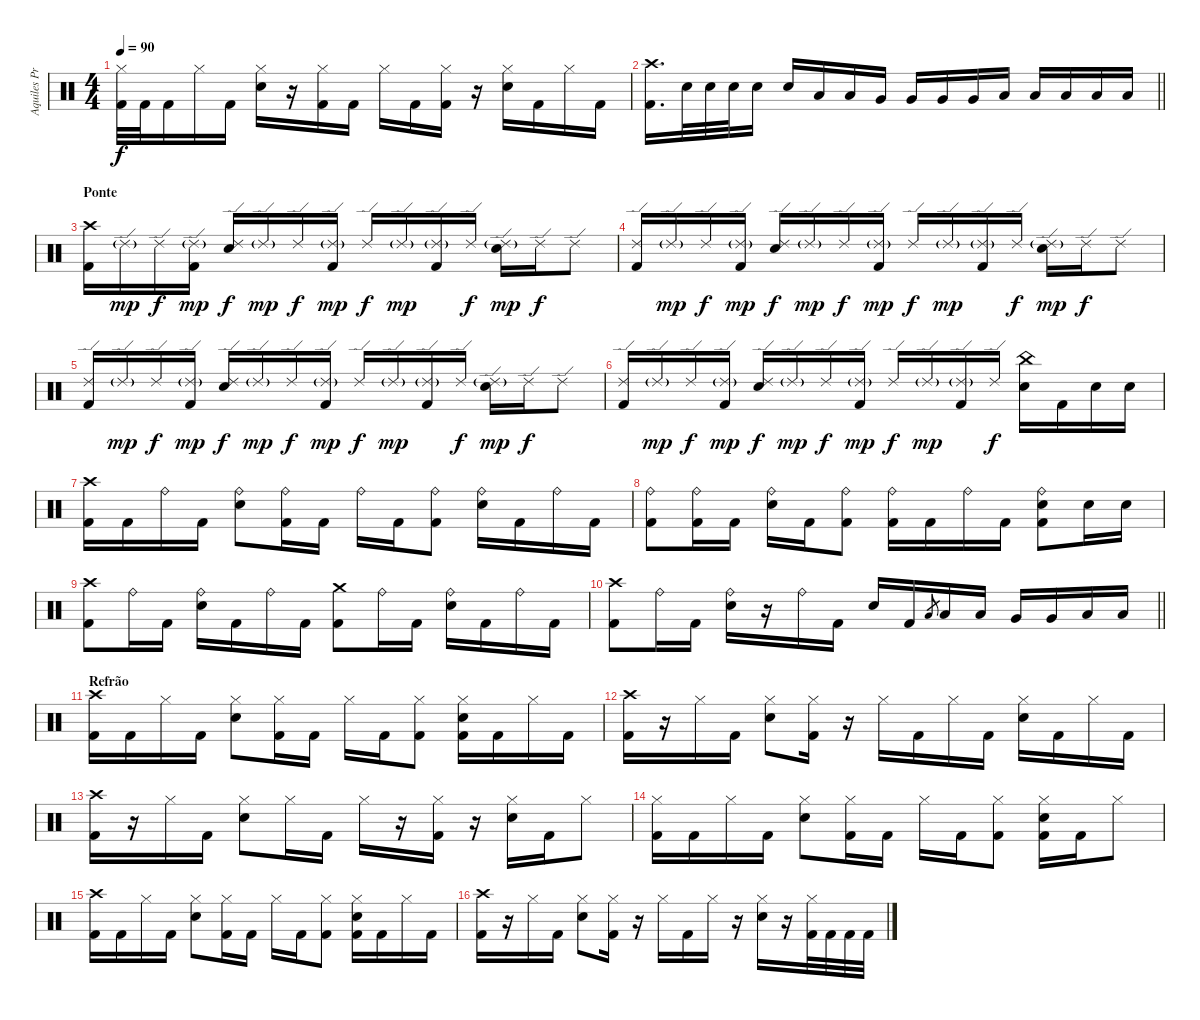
\track ("Aquiles Priester" "Aquiles Pr") {instrument percussion}
\staff {score}
\articulation defaults
\ts (4 4)
\tempo 90
\clef neutral
\ks c
("Hi-Hat (closed)" "Kick (hit) 2").32{dy f} "Kick (hit) 2".32 "Kick (hit) 2".16 "Hi-Hat (closed)".16 "Kick (hit) 2".16 ("Hi-Hat (closed)" "Electric Snare (hit)").16 r.16 ("Hi-Hat (closed)" "Kick (hit) 2").16 "Kick (hit) 2".16 "Hi-Hat (closed)".16 "Kick (hit) 2".16 ("Hi-Hat (closed)" "Kick (hit) 2").16 r.16 ("Hi-Hat (closed)" "Electric Snare (hit)").16 "Kick (hit) 2".16 "Hi-Hat (closed)".16 "Kick (hit) 2".16 |
\barLineRight lightlight
("Crash high (hit)" "Kick (hit) 2").16{d} "Electric Snare (hit)".32 "Electric Snare (hit)".32 "Electric Snare (hit)".32 "Electric Snare (hit)".16 "Electric Snare (hit)".16 "Low Tom (hit)".16 "Low Tom (hit)".16 "Very Low Tom (hit)".16 "Very Low Tom (hit)".16 "Very Low Tom (hit)".16 "Very Low Tom (hit)".16 "Low Floor Tom (hit)".16 "Low Floor Tom (hit)".16 "Low Floor Tom (hit)".16 "Low Floor Tom (hit)".16 "Low Floor Tom (hit)".16 |
\section ("" "Ponte")
("Crash high (hit)" "Kick (hit) 2").16 "Ride (edge) 2"{g}.16{dy mp} "Ride (edge) 2".16{dy f} ("Ride (edge) 2"{g} "Kick (hit) 2").16{dy mp} ("Ride (edge) 2" "Electric Snare (hit)").16{dy f} "Ride (edge) 2"{g}.16{dy mp} "Ride (edge) 2".16{dy f} ("Ride (edge) 2"{g} "Kick (hit) 2").16{dy mp} "Ride (edge) 2".16{dy f} "Ride (edge) 2"{g}.16{dy mp} ("Ride (edge) 2"{g} "Kick (hit) 2").16 "Ride (edge) 2".16{dy f} ("Ride (edge) 2"{g} "Electric Snare (hit)").16{dy mp} "Ride (edge) 2".16{dy f} "Ride (edge) 2".8 |
("Ride (edge) 2" "Kick (hit) 2").16 "Ride (edge) 2"{g}.16{dy mp} "Ride (edge) 2".16{dy f} ("Ride (edge) 2"{g} "Kick (hit) 2").16{dy mp} ("Ride (edge) 2" "Electric Snare (hit)").16{dy f} "Ride (edge) 2"{g}.16{dy mp} "Ride (edge) 2".16{dy f} ("Ride (edge) 2"{g} "Kick (hit) 2").16{dy mp} "Ride (edge) 2".16{dy f} "Ride (edge) 2"{g}.16{dy mp} ("Ride (edge) 2"{g} "Kick (hit) 2").16 "Ride (edge) 2".16{dy f} ("Ride (edge) 2"{g} "Electric Snare (hit)").16{dy mp} "Ride (edge) 2".16{dy f} "Ride (edge) 2".8 |
("Ride (edge) 2" "Kick (hit) 2").16 "Ride (edge) 2"{g}.16{dy mp} "Ride (edge) 2".16{dy f} ("Ride (edge) 2"{g} "Kick (hit) 2").16{dy mp} ("Ride (edge) 2" "Electric Snare (hit)").16{dy f} "Ride (edge) 2"{g}.16{dy mp} "Ride (edge) 2".16{dy f} ("Ride (edge) 2"{g} "Kick (hit) 2").16{dy mp} "Ride (edge) 2".16{dy f} "Ride (edge) 2"{g}.16{dy mp} ("Ride (edge) 2"{g} "Kick (hit) 2").16 "Ride (edge) 2".16{dy f} ("Ride (edge) 2"{g} "Electric Snare (hit)").16{dy mp} "Ride (edge) 2".16{dy f} "Ride (edge) 2".8 |
("Ride (edge) 2" "Kick (hit) 2").16 "Ride (edge) 2"{g}.16{dy mp} "Ride (edge) 2".16{dy f} ("Ride (edge) 2"{g} "Kick (hit) 2").16{dy mp} ("Ride (edge) 2" "Electric Snare (hit)").16{dy f} "Ride (edge) 2"{g}.16{dy mp} "Ride (edge) 2".16{dy f} ("Ride (edge) 2"{g} "Kick (hit) 2").16{dy mp} "Ride (edge) 2".16{dy f} "Ride (edge) 2"{g}.16{dy mp} ("Ride (edge) 2"{g} "Kick (hit) 2").16 "Ride (edge) 2".16{dy f} ("China (hit)" "Electric Snare (hit)").16 "Kick (hit) 2".16 "Electric Snare (hit)".16 "Electric Snare (hit)".16 |
("Crash high (hit)" "Kick (hit) 2").16 "Kick (hit) 2".16 "Ride (bell)".16 "Kick (hit) 2".16 ("Ride (bell)" "Electric Snare (hit)").8 ("Ride (bell)" "Kick (hit) 2").16 "Kick (hit) 2".16 "Ride (bell)".16 "Kick (hit) 2".16 ("Ride (bell)" "Kick (hit) 2").8 ("Ride (bell)" "Electric Snare (hit)").16 "Kick (hit) 2".16 "Ride (bell)".16 "Kick (hit) 2".16 |
("Ride (bell)" "Kick (hit) 2").8 ("Ride (bell)" "Kick (hit) 2").16 "Kick (hit) 2".16 ("Ride (bell)" "Electric Snare (hit)").16 "Kick (hit) 2".16 ("Ride (bell)" "Kick (hit) 2").8 ("Ride (bell)" "Kick (hit) 2").16 "Kick (hit) 2".16 "Ride (bell)".16 "Kick (hit) 2".16 ("Ride (bell)" "Electric Snare (hit)" "Kick (hit) 2").8 "Electric Snare (hit)".16 "Electric Snare (hit)".16 |
("Crash high (hit)" "Kick (hit) 2").8 "Ride (bell)".16 "Kick (hit) 2".16 ("Ride (bell)" "Electric Snare (hit)").16 "Kick (hit) 2".16 "Ride (bell)".16 "Kick (hit) 2".16 ("Crash medium (hit)" "Kick (hit) 2").8 "Ride (bell)".16 "Kick (hit) 2".16 ("Ride (bell)" "Electric Snare (hit)").16 "Kick (hit) 2".16 "Ride (bell)".16 "Kick (hit) 2".16 |
\barLineRight lightlight
("Crash high (hit)" "Kick (hit) 2").8 "Ride (bell)".16 "Kick (hit) 2".16 ("Ride (bell)" "Electric Snare (hit)").16 r.16 "Ride (bell)".16 "Kick (hit) 2".16 "Electric Snare (hit)".16 "Kick (hit) 2".16 "Low Tom (hit)".8{gr} "Low Tom (hit)".16 "Low Tom (hit)".16 "Very Low Tom (hit)".16 "Very Low Tom (hit)".16 "Low Floor Tom (hit)".16 "Low Floor Tom (hit)".16 |
\section ("" "Refrão")
("Crash high (hit)" "Kick (hit) 2").16 "Kick (hit) 2".16 "Hi-Hat (closed)".16 "Kick (hit) 2".16 ("Hi-Hat (closed)" "Electric Snare (hit)").8 ("Hi-Hat (closed)" "Kick (hit) 2").16 "Kick (hit) 2".16 "Hi-Hat (closed)".16 "Kick (hit) 2".16 ("Hi-Hat (closed)" "Kick (hit) 2").8 ("Hi-Hat (closed)" "Electric Snare (hit)" "Kick (hit) 2").16 "Kick (hit) 2".16 "Hi-Hat (closed)".16 "Kick (hit) 2".16 |
("Crash high (hit)" "Kick (hit) 2").16 r.16 "Hi-Hat (closed)".16 "Kick (hit) 2".16 ("Hi-Hat (closed)" "Electric Snare (hit)").8 ("Hi-Hat (closed)" "Kick (hit) 2").16 r.16 "Hi-Hat (closed)".16 "Kick (hit) 2".16 "Hi-Hat (closed)".16 "Kick (hit) 2".16 ("Hi-Hat (closed)" "Electric Snare (hit)").16 "Kick (hit) 2".16 "Hi-Hat (closed)".16 "Kick (hit) 2".16 |
("Crash high (hit)" "Kick (hit) 2").16 r.16 "Hi-Hat (closed)".16 "Kick (hit) 2".16 ("Hi-Hat (closed)" "Electric Snare (hit)").8 "Hi-Hat (closed)".16 "Kick (hit) 2".16 "Hi-Hat (closed)".16 r.16 ("Hi-Hat (closed)" "Kick (hit) 2").16 r.16 ("Hi-Hat (closed)" "Electric Snare (hit)").16 "Kick (hit) 2".16 "Hi-Hat (closed)".8 |
("Hi-Hat (closed)" "Kick (hit) 2").16 "Kick (hit) 2".16 "Hi-Hat (closed)".16 "Kick (hit) 2".16 ("Hi-Hat (closed)" "Electric Snare (hit)").8 ("Hi-Hat (closed)" "Kick (hit) 2").16 "Kick (hit) 2".16 "Hi-Hat (closed)".16 "Kick (hit) 2".16 ("Hi-Hat (closed)" "Kick (hit) 2").8 ("Hi-Hat (closed)" "Electric Snare (hit)" "Kick (hit) 2").16 "Kick (hit) 2".16 "Hi-Hat (closed)".8 |
("Crash high (hit)" "Kick (hit) 2").16 "Kick (hit) 2".16 "Hi-Hat (closed)".16 "Kick (hit) 2".16 ("Hi-Hat (closed)" "Electric Snare (hit)").8 ("Hi-Hat (closed)" "Kick (hit) 2").16 "Kick (hit) 2".16 "Hi-Hat (closed)".16 "Kick (hit) 2".16 ("Hi-Hat (closed)" "Kick (hit) 2").8 ("Hi-Hat (closed)" "Electric Snare (hit)" "Kick (hit) 2").16 "Kick (hit) 2".16 "Hi-Hat (closed)".16 "Kick (hit) 2".16 |
("Crash high (hit)" "Kick (hit) 2").16 r.16 "Hi-Hat (closed)".16 "Kick (hit) 2".16 ("Hi-Hat (closed)" "Electric Snare (hit)").8 ("Hi-Hat (closed)" "Kick (hit) 2").16 r.16 "Hi-Hat (closed)".16 "Kick (hit) 2".16 "Hi-Hat (closed)".16 r.16 ("Hi-Hat (closed)" "Electric Snare (hit)").16 r.16 ("Hi-Hat (closed)" "Kick (hit) 2").32 "Kick (hit) 2".32 "Kick (hit) 2".32 "Kick (hit) 2".32
